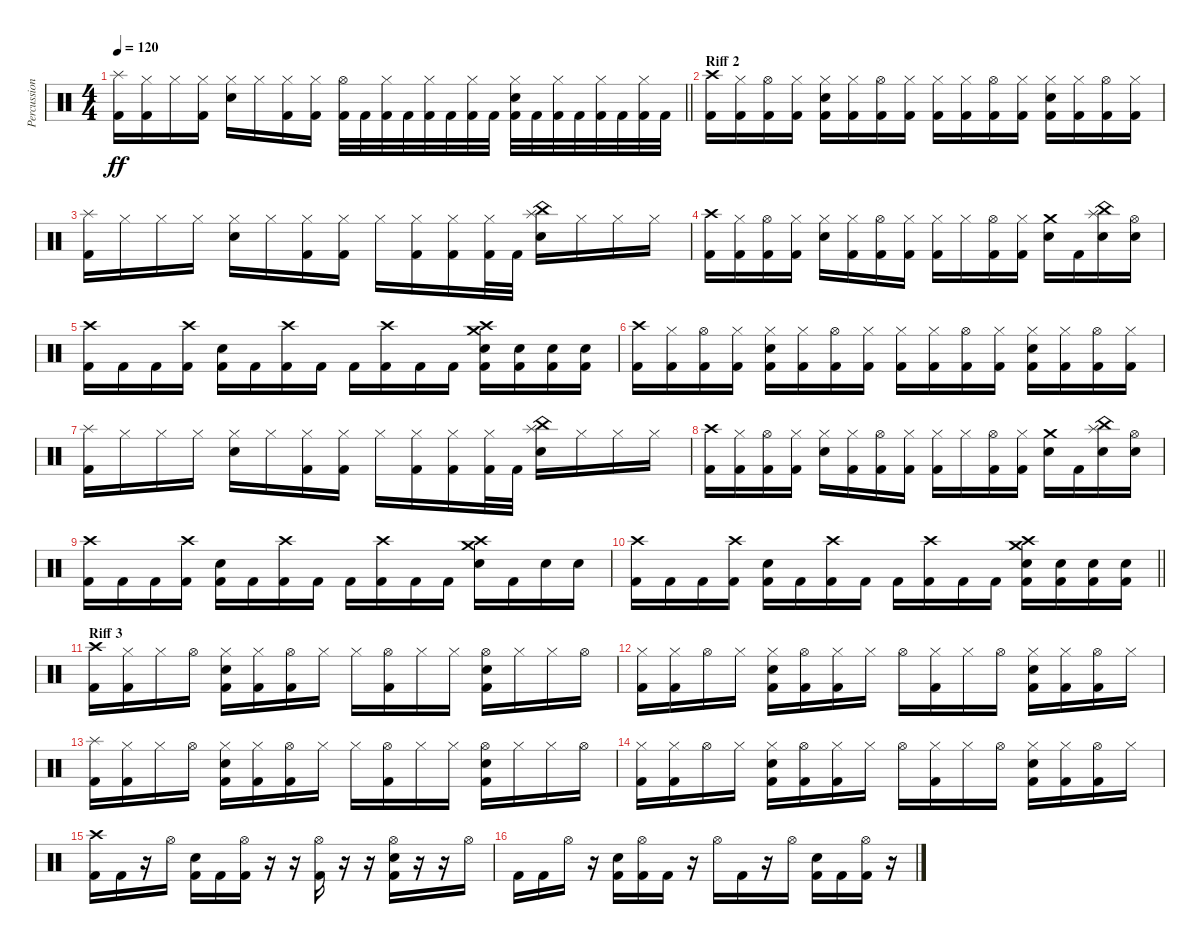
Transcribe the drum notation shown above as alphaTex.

\track ("Percussion" "Percussion") {instrument percussion}
\staff {score}
\articulation defaults
\ts (4 4)
\tempo 120
\clef neutral
\barLineRight lightlight
\ks c
("Splash (hit)" "Kick (hit) 2").16{dy ff} ("Hi-Hat (closed)" "Kick (hit) 2").16 "Hi-Hat (closed)".16 ("Hi-Hat (closed)" "Kick (hit) 2").16 ("Hi-Hat (closed)" "Electric Snare (hit)").16 "Hi-Hat (closed)".16 ("Hi-Hat (closed)" "Kick (hit) 2").16 ("Hi-Hat (closed)" "Kick (hit) 2").16 ("Hi-Hat (open)" "Kick (hit) 2").32 "Kick (hit) 2".32 ("Hi-Hat (closed)" "Kick (hit) 2").32 "Kick (hit) 2".32 ("Hi-Hat (closed)" "Kick (hit) 2").32 "Kick (hit) 2".32 ("Hi-Hat (closed)" "Kick (hit) 2").32 "Kick (hit) 2".32 ("Hi-Hat (closed)" "Electric Snare (hit)" "Kick (hit) 2").32 "Kick (hit) 2".32 ("Hi-Hat (closed)" "Kick (hit) 2").32 "Kick (hit) 2".32 ("Hi-Hat (closed)" "Kick (hit) 2").32 "Kick (hit) 2".32 ("Hi-Hat (closed)" "Kick (hit) 2").32 "Kick (hit) 2".32 |
\section ("" "Riff 2")
("Crash high (hit)" "Kick (hit) 2").16 ("Hi-Hat (closed)" "Kick (hit) 2").16 ("Hi-Hat (open)" "Kick (hit) 2").16 ("Hi-Hat (closed)" "Kick (hit) 2").16 ("Hi-Hat (closed)" "Electric Snare (hit)" "Kick (hit) 2").16 ("Hi-Hat (closed)" "Kick (hit) 2").16 ("Hi-Hat (open)" "Kick (hit) 2").16 ("Hi-Hat (closed)" "Kick (hit) 2").16 ("Hi-Hat (closed)" "Kick (hit) 2").16 ("Hi-Hat (closed)" "Kick (hit) 2").16 ("Hi-Hat (open)" "Kick (hit) 2").16 ("Hi-Hat (closed)" "Kick (hit) 2").16 ("Hi-Hat (closed)" "Electric Snare (hit)" "Kick (hit) 2").16 ("Hi-Hat (closed)" "Kick (hit) 2").16 ("Hi-Hat (open)" "Kick (hit) 2").16 ("Hi-Hat (closed)" "Kick (hit) 2").16 |
("Splash (hit)" "Kick (hit) 2").16 "Hi-Hat (closed)".16 "Hi-Hat (closed)".16 "Hi-Hat (closed)".16 ("Hi-Hat (closed)" "Electric Snare (hit)").16 "Hi-Hat (closed)".16 ("Hi-Hat (closed)" "Kick (hit) 2").16 ("Hi-Hat (closed)" "Kick (hit) 2").16 "Hi-Hat (closed)".16 ("Hi-Hat (closed)" "Kick (hit) 2").16 ("Hi-Hat (closed)" "Kick (hit) 2").16 ("Hi-Hat (closed)" "Kick (hit) 2").32 "Kick (hit) 2".32 ("Splash (hit)" "China (hit)" "Electric Snare (hit)").16 "Hi-Hat (closed)".16 "Hi-Hat (closed)".16 "Hi-Hat (closed)".16 |
("Crash high (hit)" "Kick (hit) 2").16 ("Hi-Hat (closed)" "Kick (hit) 2").16 ("Hi-Hat (open)" "Kick (hit) 2").16 ("Hi-Hat (closed)" "Kick (hit) 2").16 ("Hi-Hat (closed)" "Electric Snare (hit)").16 ("Hi-Hat (closed)" "Kick (hit) 2").16 ("Hi-Hat (open)" "Kick (hit) 2").16 ("Hi-Hat (closed)" "Kick (hit) 2").16 ("Hi-Hat (closed)" "Kick (hit) 2").16 "Hi-Hat (closed)".16 ("Hi-Hat (open)" "Kick (hit) 2").16 ("Hi-Hat (closed)" "Kick (hit) 2").16 ("Crash medium (hit)" "Electric Snare (hit)").16 "Kick (hit) 2".16 ("Splash (hit)" "China (hit)" "Electric Snare (hit)").16 ("Hi-Hat (open)" "Electric Snare (hit)").16 |
("Crash high (hit)" "Kick (hit) 2").16 "Kick (hit) 2".16 "Kick (hit) 2".16 ("Crash high (hit)" "Kick (hit) 2").16 ("Electric Snare (hit)" "Kick (hit) 2").16 "Kick (hit) 2".16 ("Crash high (hit)" "Kick (hit) 2").16 "Kick (hit) 2".16 "Kick (hit) 2".16 ("Crash high (hit)" "Kick (hit) 2").16 "Kick (hit) 2".16 "Kick (hit) 2".16 ("Crash medium (hit)" "Crash high (hit)" "Electric Snare (hit)" "Kick (hit) 2").16 ("Electric Snare (hit)" "Kick (hit) 2").16 ("Electric Snare (hit)" "Kick (hit) 2").16 ("Electric Snare (hit)" "Kick (hit) 2").16 |
("Crash high (hit)" "Kick (hit) 2").16 ("Hi-Hat (closed)" "Kick (hit) 2").16 ("Hi-Hat (open)" "Kick (hit) 2").16 ("Hi-Hat (closed)" "Kick (hit) 2").16 ("Hi-Hat (closed)" "Electric Snare (hit)" "Kick (hit) 2").16 ("Hi-Hat (closed)" "Kick (hit) 2").16 ("Hi-Hat (open)" "Kick (hit) 2").16 ("Hi-Hat (closed)" "Kick (hit) 2").16 ("Hi-Hat (closed)" "Kick (hit) 2").16 ("Hi-Hat (closed)" "Kick (hit) 2").16 ("Hi-Hat (open)" "Kick (hit) 2").16 ("Hi-Hat (closed)" "Kick (hit) 2").16 ("Hi-Hat (closed)" "Electric Snare (hit)" "Kick (hit) 2").16 ("Hi-Hat (closed)" "Kick (hit) 2").16 ("Hi-Hat (open)" "Kick (hit) 2").16 ("Hi-Hat (closed)" "Kick (hit) 2").16 |
("Splash (hit)" "Kick (hit) 2").16 "Hi-Hat (closed)".16 "Hi-Hat (closed)".16 "Hi-Hat (closed)".16 ("Hi-Hat (closed)" "Electric Snare (hit)").16 "Hi-Hat (closed)".16 ("Hi-Hat (closed)" "Kick (hit) 2").16 ("Hi-Hat (closed)" "Kick (hit) 2").16 "Hi-Hat (closed)".16 ("Hi-Hat (closed)" "Kick (hit) 2").16 ("Hi-Hat (closed)" "Kick (hit) 2").16 ("Hi-Hat (closed)" "Kick (hit) 2").32 "Kick (hit) 2".32 ("Splash (hit)" "China (hit)" "Electric Snare (hit)").16 "Hi-Hat (closed)".16 "Hi-Hat (closed)".16 "Hi-Hat (closed)".16 |
("Crash high (hit)" "Kick (hit) 2").16 ("Hi-Hat (closed)" "Kick (hit) 2").16 ("Hi-Hat (open)" "Kick (hit) 2").16 ("Hi-Hat (closed)" "Kick (hit) 2").16 ("Hi-Hat (closed)" "Electric Snare (hit)").16 ("Hi-Hat (closed)" "Kick (hit) 2").16 ("Hi-Hat (open)" "Kick (hit) 2").16 ("Hi-Hat (closed)" "Kick (hit) 2").16 ("Hi-Hat (closed)" "Kick (hit) 2").16 "Hi-Hat (closed)".16 ("Hi-Hat (open)" "Kick (hit) 2").16 ("Hi-Hat (closed)" "Kick (hit) 2").16 ("Crash medium (hit)" "Electric Snare (hit)").16 "Kick (hit) 2".16 ("Splash (hit)" "China (hit)" "Electric Snare (hit)").16 ("Hi-Hat (open)" "Electric Snare (hit)").16 |
("Crash high (hit)" "Kick (hit) 2").16 "Kick (hit) 2".16 "Kick (hit) 2".16 ("Crash high (hit)" "Kick (hit) 2").16 ("Electric Snare (hit)" "Kick (hit) 2").16 "Kick (hit) 2".16 ("Crash high (hit)" "Kick (hit) 2").16 "Kick (hit) 2".16 "Kick (hit) 2".16 ("Crash high (hit)" "Kick (hit) 2").16 "Kick (hit) 2".16 "Kick (hit) 2".16 ("Crash medium (hit)" "Crash high (hit)" "Electric Snare (hit)").16 "Kick (hit) 2".16 "Electric Snare (hit)".16 "Electric Snare (hit)".16 |
\barLineRight lightlight
("Crash high (hit)" "Kick (hit) 2").16 "Kick (hit) 2".16 "Kick (hit) 2".16 ("Crash high (hit)" "Kick (hit) 2").16 ("Electric Snare (hit)" "Kick (hit) 2").16 "Kick (hit) 2".16 ("Crash high (hit)" "Kick (hit) 2").16 "Kick (hit) 2".16 "Kick (hit) 2".16 ("Crash high (hit)" "Kick (hit) 2").16 "Kick (hit) 2".16 "Kick (hit) 2".16 ("Crash medium (hit)" "Crash high (hit)" "Electric Snare (hit)" "Kick (hit) 2").16 ("Electric Snare (hit)" "Kick (hit) 2").16 ("Electric Snare (hit)" "Kick (hit) 2").16 ("Electric Snare (hit)" "Kick (hit) 2").16 |
\section ("" "Riff 3")
("Crash high (hit)" "Kick (hit) 2").16 ("Hi-Hat (closed)" "Kick (hit) 2").16 "Hi-Hat (closed)".16 "Hi-Hat (open)".16 ("Hi-Hat (closed)" "Electric Snare (hit)" "Kick (hit) 2").16 ("Hi-Hat (closed)" "Kick (hit) 2").16 ("Hi-Hat (open)" "Kick (hit) 2").16 "Hi-Hat (closed)".16 "Hi-Hat (closed)".16 ("Hi-Hat (open)" "Kick (hit) 2").16 "Hi-Hat (closed)".16 "Hi-Hat (closed)".16 ("Hi-Hat (open)" "Electric Snare (hit)" "Kick (hit) 2").16 "Hi-Hat (closed)".16 "Hi-Hat (closed)".16 "Hi-Hat (open)".16 |
("Hi-Hat (closed)" "Kick (hit) 2").16 ("Hi-Hat (closed)" "Kick (hit) 2").16 "Hi-Hat (open)".16 "Hi-Hat (closed)".16 ("Hi-Hat (closed)" "Electric Snare (hit)" "Kick (hit) 2").16 ("Hi-Hat (open)" "Kick (hit) 2").16 ("Hi-Hat (closed)" "Kick (hit) 2").16 "Hi-Hat (closed)".16 "Hi-Hat (open)".16 ("Hi-Hat (closed)" "Kick (hit) 2").16 "Hi-Hat (closed)".16 "Hi-Hat (open)".16 ("Hi-Hat (closed)" "Electric Snare (hit)" "Kick (hit) 2").16 ("Hi-Hat (closed)" "Kick (hit) 2").16 ("Hi-Hat (open)" "Kick (hit) 2").16 "Hi-Hat (closed)".16 |
("Splash (hit)" "Kick (hit) 2").16 ("Hi-Hat (closed)" "Kick (hit) 2").16 "Hi-Hat (closed)".16 "Hi-Hat (open)".16 ("Hi-Hat (closed)" "Electric Snare (hit)" "Kick (hit) 2").16 ("Hi-Hat (closed)" "Kick (hit) 2").16 ("Hi-Hat (open)" "Kick (hit) 2").16 "Hi-Hat (closed)".16 "Hi-Hat (closed)".16 ("Hi-Hat (open)" "Kick (hit) 2").16 "Hi-Hat (closed)".16 "Hi-Hat (closed)".16 ("Hi-Hat (open)" "Electric Snare (hit)" "Kick (hit) 2").16 "Hi-Hat (closed)".16 "Hi-Hat (closed)".16 "Hi-Hat (open)".16 |
("Hi-Hat (closed)" "Kick (hit) 2").16 ("Hi-Hat (closed)" "Kick (hit) 2").16 "Hi-Hat (open)".16 "Hi-Hat (closed)".16 ("Hi-Hat (closed)" "Electric Snare (hit)" "Kick (hit) 2").16 ("Hi-Hat (open)" "Kick (hit) 2").16 ("Hi-Hat (closed)" "Kick (hit) 2").16 "Hi-Hat (closed)".16 "Hi-Hat (open)".16 ("Hi-Hat (closed)" "Kick (hit) 2").16 "Hi-Hat (closed)".16 "Hi-Hat (open)".16 ("Hi-Hat (closed)" "Electric Snare (hit)" "Kick (hit) 2").16 ("Hi-Hat (closed)" "Kick (hit) 2").16 ("Hi-Hat (open)" "Kick (hit) 2").16 "Hi-Hat (closed)".16 |
("Crash high (hit)" "Kick (hit) 2").16 "Kick (hit) 2".16 r.16 "Hi-Hat (open)".16 ("Electric Snare (hit)" "Kick (hit) 2").16 "Kick (hit) 2".16 ("Hi-Hat (open)" "Kick (hit) 2").16 r.16 r.16 ("Hi-Hat (open)" "Kick (hit) 2").16 r.16 r.16 ("Hi-Hat (open)" "Electric Snare (hit)" "Kick (hit) 2").16 r.16 r.16 "Hi-Hat (open)".16 |
"Kick (hit) 2".16 "Kick (hit) 2".16 "Hi-Hat (open)".16 r.16 ("Electric Snare (hit)" "Kick (hit) 2").16 ("Hi-Hat (open)" "Kick (hit) 2").16 "Kick (hit) 2".16 r.16 "Hi-Hat (open)".16 "Kick (hit) 2".16 r.16 "Hi-Hat (open)".16 ("Electric Snare (hit)" "Kick (hit) 2").16 "Kick (hit) 2".16 ("Hi-Hat (open)" "Kick (hit) 2").16 r.16
